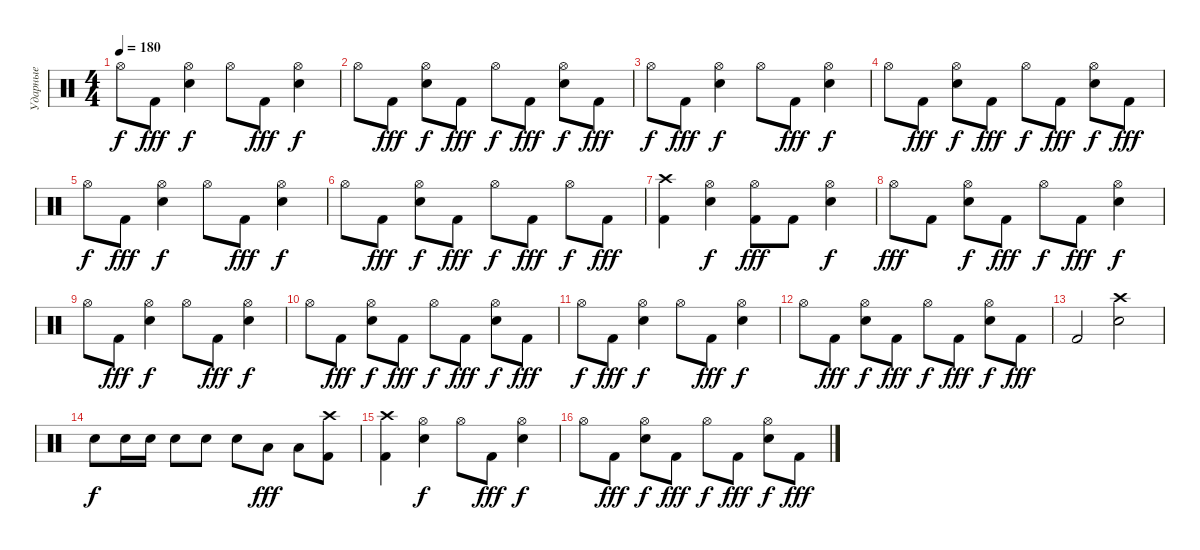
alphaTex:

\track ("Ударные" "Ударные") {instrument percussion}
\staff
\articulation defaults
\ts (4 4)
\tempo 180
\clef neutral
\ks c "Hi-Hat (open)".8{dy f} "Kick (hit) 2".8{dy fff}
("Snare (hit) 2" "Hi-Hat (open)").4{dy f} "Hi-Hat (open)".8 "Kick (hit) 2".8{dy fff} ("Snare (hit) 2" "Hi-Hat (open)").4{dy f} |
"Hi-Hat (open)".8 "Kick (hit) 2".8{dy fff} ("Snare (hit) 2" "Hi-Hat (open)").8{dy f} "Kick (hit) 2".8{dy fff} "Hi-Hat (open)".8{dy f} "Kick (hit) 2".8{dy fff} ("Snare (hit) 2" "Hi-Hat (open)").8{dy f} "Kick (hit) 2".8{dy fff} |
"Hi-Hat (open)".8{dy f} "Kick (hit) 2".8{dy fff} ("Snare (hit) 2" "Hi-Hat (open)").4{dy f} "Hi-Hat (open)".8 "Kick (hit) 2".8{dy fff} ("Snare (hit) 2" "Hi-Hat (open)").4{dy f} |
"Hi-Hat (open)".8 "Kick (hit) 2".8{dy fff} ("Snare (hit) 2" "Hi-Hat (open)").8{dy f} "Kick (hit) 2".8{dy fff} "Hi-Hat (open)".8{dy f} "Kick (hit) 2".8{dy fff} ("Snare (hit) 2" "Hi-Hat (open)").8{dy f} "Kick (hit) 2".8{dy fff} |
"Hi-Hat (open)".8{dy f} "Kick (hit) 2".8{dy fff} ("Snare (hit) 2" "Hi-Hat (open)").4{dy f} "Hi-Hat (open)".8 "Kick (hit) 2".8{dy fff} ("Snare (hit) 2" "Hi-Hat (open)").4{dy f} |
"Hi-Hat (open)".8 "Kick (hit) 2".8{dy fff} ("Snare (hit) 2" "Hi-Hat (open)").8{dy f} "Kick (hit) 2".8{dy fff} "Hi-Hat (open)".8{dy f} "Kick (hit) 2".8{dy fff} "Hi-Hat (open)".8{dy f} "Kick (hit) 2".8{dy fff} |
("Kick (hit) 2" "Crash high (hit)").4 ("Snare (hit) 2" "Hi-Hat (open)").4{dy f} ("Kick (hit) 2" "Hi-Hat (open)").8{dy fff} "Kick (hit) 2".8 ("Snare (hit) 2" "Hi-Hat (open)").4{dy f} |
"Hi-Hat (open)".8{dy fff} "Kick (hit) 2".8 ("Snare (hit) 2" "Hi-Hat (open)").8{dy f} "Kick (hit) 2".8{dy fff} "Hi-Hat (open)".8{dy f} "Kick (hit) 2".8{dy fff} ("Snare (hit) 2" "Hi-Hat (open)").4{dy f} |
"Hi-Hat (open)".8 "Kick (hit) 2".8{dy fff} ("Snare (hit) 2" "Hi-Hat (open)").4{dy f} "Hi-Hat (open)".8 "Kick (hit) 2".8{dy fff} ("Snare (hit) 2" "Hi-Hat (open)").4{dy f} |
"Hi-Hat (open)".8 "Kick (hit) 2".8{dy fff} ("Snare (hit) 2" "Hi-Hat (open)").8{dy f} "Kick (hit) 2".8{dy fff} "Hi-Hat (open)".8{dy f} "Kick (hit) 2".8{dy fff} ("Snare (hit) 2" "Hi-Hat (open)").8{dy f} "Kick (hit) 2".8{dy fff} |
"Hi-Hat (open)".8{dy f} "Kick (hit) 2".8{dy fff} ("Snare (hit) 2" "Hi-Hat (open)").4{dy f} "Hi-Hat (open)".8 "Kick (hit) 2".8{dy fff} ("Snare (hit) 2" "Hi-Hat (open)").4{dy f} |
"Hi-Hat (open)".8 "Kick (hit) 2".8{dy fff} ("Snare (hit) 2" "Hi-Hat (open)").8{dy f} "Kick (hit) 2".8{dy fff} "Hi-Hat (open)".8{dy f} "Kick (hit) 2".8{dy fff} ("Snare (hit) 2" "Hi-Hat (open)").8{dy f} "Kick (hit) 2".8{dy fff} |
"Kick (hit) 2".2 ("Snare (hit) 2" "Crash high (hit)").2 |
"Snare (hit) 2".8{dy f} "Snare (hit) 2".16 "Snare (hit) 2".16 "Snare (hit) 2".8 "Snare (hit) 2".8 "Snare (hit) 2".8 "Low Tom (hit)".8{dy fff} "Low Tom (hit)".8 ("Kick (hit) 2" "Crash high (hit)").8 |
("Kick (hit) 2" "Crash high (hit)").4 ("Snare (hit) 2" "Hi-Hat (open)").4{dy f} "Hi-Hat (open)".8 "Kick (hit) 2".8{dy fff} ("Snare (hit) 2" "Hi-Hat (open)").4{dy f} |
"Hi-Hat (open)".8 "Kick (hit) 2".8{dy fff} ("Snare (hit) 2" "Hi-Hat (open)").8{dy f} "Kick (hit) 2".8{dy fff} "Hi-Hat (open)".8{dy f} "Kick (hit) 2".8{dy fff} ("Snare (hit) 2" "Hi-Hat (open)").8{dy f} "Kick (hit) 2".8{dy fff}
